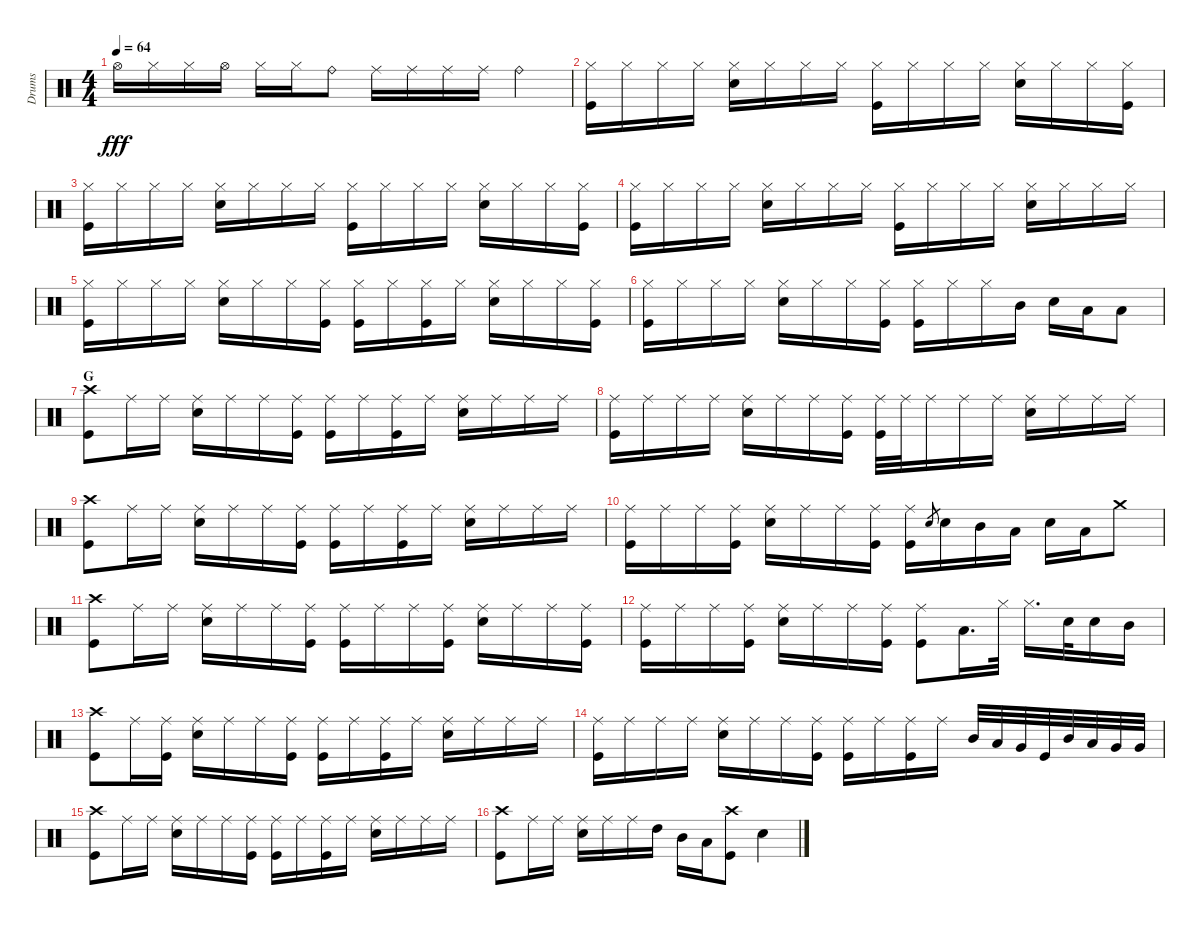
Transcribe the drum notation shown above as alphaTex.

\track ("Drums" "Drums") {instrument percussion}
\staff {score}
\articulation defaults
\ts (4 4)
\tempo 64
\clef neutral
\ks c "Hi-Hat (open)".16{dy fff} "Hi-Hat (closed)".16 "Hi-Hat (closed)".16 "Hi-Hat (open)".16 "Hi-Hat (closed)".16 "Hi-Hat (closed)".16 "Ride (bell)".8 "Ride (middle)".16 "Ride (middle)".16 "Ride (middle)".16 "Ride (middle)".16 "Ride (bell)".4
|
("Hi-Hat (closed)" "Kick (hit)").16 "Hi-Hat (closed)".16 "Hi-Hat (closed)".16 "Hi-Hat (closed)".16 ("Hi-Hat (closed)" "Electric Snare (hit)").16 "Hi-Hat (closed)".16 "Hi-Hat (closed)".16 "Hi-Hat (closed)".16 ("Hi-Hat (closed)" "Kick (hit)").16 "Hi-Hat (closed)".16 "Hi-Hat (closed)".16 "Hi-Hat (closed)".16 ("Hi-Hat (closed)" "Electric Snare (hit)").16 "Hi-Hat (closed)".16 "Hi-Hat (closed)".16 ("Hi-Hat (closed)" "Kick (hit)").16 |
("Hi-Hat (closed)" "Kick (hit)").16 "Hi-Hat (closed)".16 "Hi-Hat (closed)".16 "Hi-Hat (closed)".16 ("Hi-Hat (closed)" "Electric Snare (hit)").16 "Hi-Hat (closed)".16 "Hi-Hat (closed)".16 "Hi-Hat (closed)".16 ("Hi-Hat (closed)" "Kick (hit)").16 "Hi-Hat (closed)".16 "Hi-Hat (closed)".16 "Hi-Hat (closed)".16 ("Hi-Hat (closed)" "Electric Snare (hit)").16 "Hi-Hat (closed)".16 "Hi-Hat (closed)".16 ("Hi-Hat (closed)" "Kick (hit)").16 |
("Hi-Hat (closed)" "Kick (hit)").16 "Hi-Hat (closed)".16 "Hi-Hat (closed)".16 "Hi-Hat (closed)".16 ("Hi-Hat (closed)" "Electric Snare (hit)").16 "Hi-Hat (closed)".16 "Hi-Hat (closed)".16 "Hi-Hat (closed)".16 ("Hi-Hat (closed)" "Kick (hit)").16 "Hi-Hat (closed)".16 "Hi-Hat (closed)".16 "Hi-Hat (closed)".16 ("Hi-Hat (closed)" "Electric Snare (hit)").16 "Hi-Hat (closed)".16 "Hi-Hat (closed)".16 "Hi-Hat (closed)".16 |
("Hi-Hat (closed)" "Kick (hit)").16 "Hi-Hat (closed)".16 "Hi-Hat (closed)".16 "Hi-Hat (closed)".16 ("Hi-Hat (closed)" "Electric Snare (hit)").16 "Hi-Hat (closed)".16 "Hi-Hat (closed)".16 ("Hi-Hat (closed)" "Kick (hit)").16 ("Hi-Hat (closed)" "Kick (hit)").16 "Hi-Hat (closed)".16 ("Hi-Hat (closed)" "Kick (hit)").16 "Hi-Hat (closed)".16 ("Hi-Hat (closed)" "Electric Snare (hit)").16 "Hi-Hat (closed)".16 "Hi-Hat (closed)".16 ("Hi-Hat (closed)" "Kick (hit)").16 |
("Hi-Hat (closed)" "Kick (hit)").16 "Hi-Hat (closed)".16 "Hi-Hat (closed)".16 "Hi-Hat (closed)".16 ("Hi-Hat (closed)" "Electric Snare (hit)").16 "Hi-Hat (closed)".16 "Hi-Hat (closed)".16 ("Hi-Hat (closed)" "Kick (hit)").16 ("Hi-Hat (closed)" "Kick (hit)").16 "Hi-Hat (closed)".16 "Hi-Hat (closed)".16 "Mid Tom (hit)".16 "Snare (hit) 2".16 "Low Tom (hit)".16 "Low Tom (hit)".8 |
\section ("" "G")
("Crash high (hit)" "Kick (hit)").8 "Ride (middle)".16 "Ride (middle)".16 ("Ride (middle)" "Snare (hit) 2").16 "Ride (middle)".16 "Ride (middle)".16 ("Ride (middle)" "Kick (hit)").16 ("Ride (middle)" "Kick (hit)").16 "Ride (middle)".16 ("Ride (middle)" "Kick (hit)").16 "Ride (middle)".16 ("Ride (middle)" "Snare (hit) 2").16 "Ride (middle)".16 "Ride (middle)".16 "Ride (middle)".16 |
("Ride (middle)" "Kick (hit)").16 "Ride (middle)".16 "Ride (middle)".16 "Ride (middle)".16 ("Ride (middle)" "Snare (hit) 2").16 "Ride (middle)".16 "Ride (middle)".16 ("Ride (middle)" "Kick (hit)").16 ("Ride (middle)" "Kick (hit)").32 "Ride (middle)".32 "Ride (middle)".16 "Ride (middle)".16 "Ride (middle)".16 ("Ride (middle)" "Snare (hit) 2").16 "Ride (middle)".16 "Ride (middle)".16 "Ride (middle)".16 |
("Crash high (hit)" "Kick (hit)").8 "Ride (middle)".16 "Ride (middle)".16 ("Ride (middle)" "Snare (hit) 2").16 "Ride (middle)".16 "Ride (middle)".16 ("Ride (middle)" "Kick (hit)").16 ("Ride (middle)" "Kick (hit)").16 "Ride (middle)".16 ("Ride (middle)" "Kick (hit)").16 "Ride (middle)".16 ("Ride (middle)" "Snare (hit) 2").16 "Ride (middle)".16 "Ride (middle)".16 "Ride (middle)".16 |
("Ride (middle)" "Kick (hit)").16 "Ride (middle)".16 "Ride (middle)".16 ("Ride (middle)" "Kick (hit)").16 ("Ride (middle)" "Snare (hit) 2").16 "Ride (middle)".16 "Ride (middle)".16 ("Ride (middle)" "Kick (hit)").16 ("Ride (middle)" "Kick (hit)").16 "Snare (hit) 2".8{gr} "Snare (hit) 2".16 "Mid Tom (hit)".16 "Low Tom (hit)".16 "Snare (hit) 2".16 "Low Tom (hit)".16 "Crash medium (hit)".8 |
("Crash high (hit)" "Kick (hit)").8 "Ride (middle)".16 "Ride (middle)".16 ("Ride (middle)" "Snare (hit) 2").16 "Ride (middle)".16 "Ride (middle)".16 ("Ride (middle)" "Kick (hit)").16 ("Ride (middle)" "Kick (hit)").16 "Ride (middle)".16 "Ride (middle)".16 ("Ride (middle)" "Kick (hit)").16 ("Ride (middle)" "Snare (hit) 2").16 "Ride (middle)".16 "Ride (middle)".16 ("Ride (middle)" "Kick (hit)").16 |
("Ride (middle)" "Kick (hit)").16 "Ride (middle)".16 "Ride (middle)".16 ("Ride (middle)" "Kick (hit)").16 ("Ride (middle)" "Snare (hit) 2").16 "Ride (middle)".16 "Ride (middle)".16 ("Ride (middle)" "Kick (hit)").16 ("Ride (middle)" "Kick (hit)").8 "Low Tom (hit)".16{d} "Hi-Hat (closed)".32 "Hi-Hat (closed)".16{d} "Snare (hit) 2".32 "Snare (hit) 2".16 "Mid Tom (hit)".16 |
("Crash high (hit)" "Kick (hit)").8 "Ride (middle)".16 ("Ride (middle)" "Kick (hit)").16 ("Ride (middle)" "Snare (hit) 2").16 "Ride (middle)".16 "Ride (middle)".16 ("Ride (middle)" "Kick (hit)").16 ("Ride (middle)" "Kick (hit)").16 "Ride (middle)".16 ("Ride (middle)" "Kick (hit)").16 "Ride (middle)".16 ("Ride (middle)" "Snare (hit) 2").16 "Ride (middle)".16 "Ride (middle)".16 "Ride (middle)".16 |
("Ride (middle)" "Kick (hit)").16 "Ride (middle)".16 "Ride (middle)".16 "Ride (middle)".16 ("Ride (middle)" "Snare (hit) 2").16 "Ride (middle)".16 "Ride (middle)".16 ("Ride (middle)" "Kick (hit)").16 ("Ride (middle)" "Kick (hit)").16 "Ride (middle)".16 ("Ride (middle)" "Kick (hit)").16 "Ride (middle)".16 "Mid Tom (hit)".32 "Low Tom (hit)".32 "Very Low Tom (hit)".32 "Kick (hit)".32 "Mid Tom (hit)".32 "Low Tom (hit)".32 "Very Low Tom (hit)".32 "Very Low Tom (hit)".32 |
("Crash high (hit)" "Kick (hit)").8 "Ride (middle)".16 "Ride (middle)".16 ("Ride (middle)" "Snare (hit) 2").16 "Ride (middle)".16 "Ride (middle)".16 ("Ride (middle)" "Kick (hit)").16 ("Ride (middle)" "Kick (hit)").16 "Ride (middle)".16 ("Ride (middle)" "Kick (hit)").16 "Ride (middle)".16 ("Ride (middle)" "Snare (hit) 2").16 "Ride (middle)".16 "Ride (middle)".16 "Ride (middle)".16 |
("Crash high (hit)" "Kick (hit)").8 "Ride (middle)".16 "Ride (middle)".16 ("Ride (middle)" "Snare (hit) 2").16 "Ride (middle)".16 "Ride (middle)".16 "High Tom (hit)".16 "Mid Tom (hit)".16 "Low Tom (hit)".16 ("Crash high (hit)" "Kick (hit)").8 "Snare (hit) 2".4
